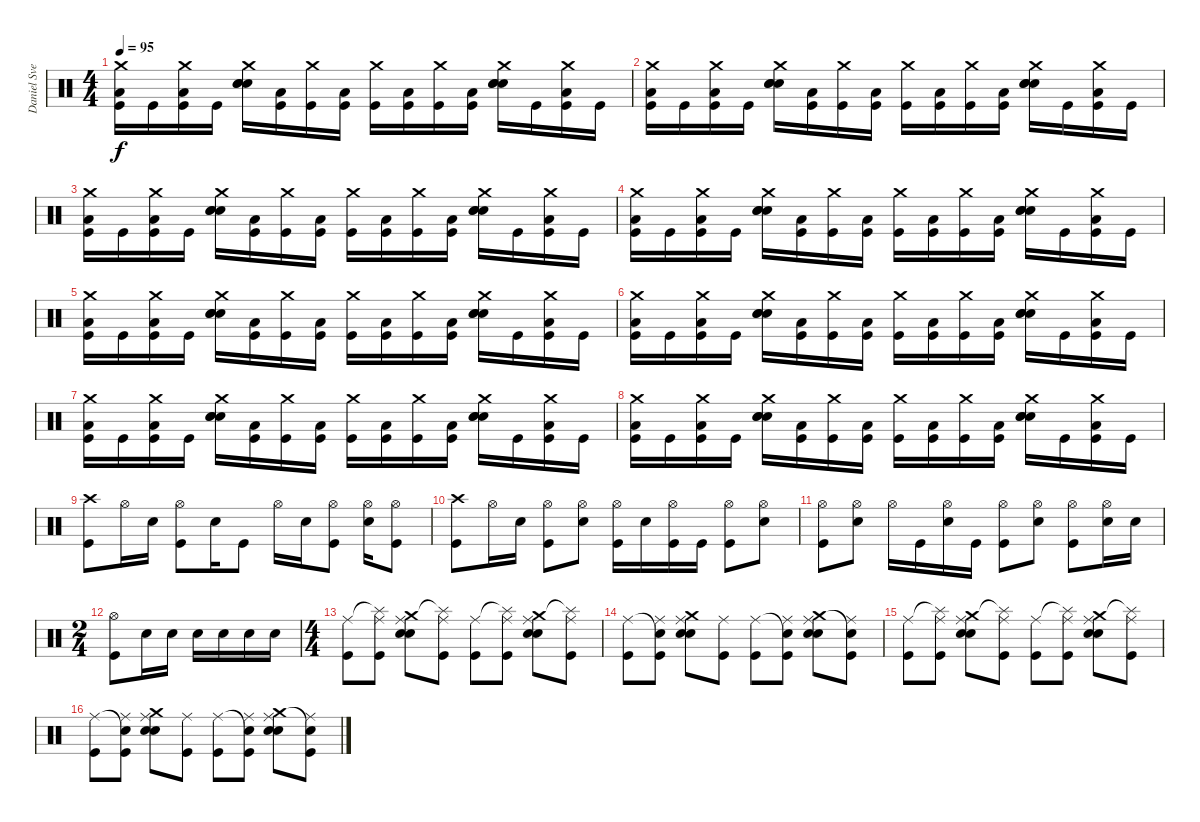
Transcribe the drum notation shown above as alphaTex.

\track ("Daniel Svensson" "Daniel Sve") {instrument percussion}
\staff {score}
\articulation defaults
\ts (4 4)
\tempo 95
\clef neutral
\ks c
("Crash medium (hit)" "Low Floor Tom (hit)" "Kick (hit)").16{dy f} "Kick (hit)".16 ("Crash medium (hit)" "Low Floor Tom (hit)" "Kick (hit)").16 "Kick (hit)".16 ("Crash medium (hit)" "Snare (hit) 2" "Snare (hit) 2" "Snare (hit) 2").16 ("Low Floor Tom (hit)" "Kick (hit)").16 ("Crash medium (hit)" "Kick (hit)").16 ("Low Floor Tom (hit)" "Kick (hit)").16 ("Crash medium (hit)" "Kick (hit)").16 ("Low Floor Tom (hit)" "Kick (hit)").16 ("Crash medium (hit)" "Kick (hit)").16 ("Low Floor Tom (hit)" "Kick (hit)").16 ("Crash medium (hit)" "Snare (hit) 2" "Snare (hit) 2" "Snare (hit) 2").16 "Kick (hit)".16 ("Crash medium (hit)" "Low Floor Tom (hit)" "Kick (hit)").16 "Kick (hit)".16 |
("Crash medium (hit)" "Low Floor Tom (hit)" "Kick (hit)").16 "Kick (hit)".16 ("Crash medium (hit)" "Low Floor Tom (hit)" "Kick (hit)").16 "Kick (hit)".16 ("Crash medium (hit)" "Snare (hit) 2" "Snare (hit) 2" "Snare (hit) 2").16 ("Low Floor Tom (hit)" "Kick (hit)").16 ("Crash medium (hit)" "Kick (hit)").16 ("Low Floor Tom (hit)" "Kick (hit)").16 ("Crash medium (hit)" "Kick (hit)").16 ("Low Floor Tom (hit)" "Kick (hit)").16 ("Crash medium (hit)" "Kick (hit)").16 ("Low Floor Tom (hit)" "Kick (hit)").16 ("Crash medium (hit)" "Snare (hit) 2" "Snare (hit) 2" "Snare (hit) 2").16 "Kick (hit)".16 ("Crash medium (hit)" "Low Floor Tom (hit)" "Kick (hit)").16 "Kick (hit)".16 |
("Crash medium (hit)" "Low Floor Tom (hit)" "Kick (hit)").16 "Kick (hit)".16 ("Crash medium (hit)" "Low Floor Tom (hit)" "Kick (hit)").16 "Kick (hit)".16 ("Crash medium (hit)" "Snare (hit) 2" "Snare (hit) 2" "Snare (hit) 2").16 ("Low Floor Tom (hit)" "Kick (hit)").16 ("Crash medium (hit)" "Kick (hit)").16 ("Low Floor Tom (hit)" "Kick (hit)").16 ("Crash medium (hit)" "Kick (hit)").16 ("Low Floor Tom (hit)" "Kick (hit)").16 ("Crash medium (hit)" "Kick (hit)").16 ("Low Floor Tom (hit)" "Kick (hit)").16 ("Crash medium (hit)" "Snare (hit) 2" "Snare (hit) 2" "Snare (hit) 2").16 "Kick (hit)".16 ("Crash medium (hit)" "Low Floor Tom (hit)" "Kick (hit)").16 "Kick (hit)".16 |
("Crash medium (hit)" "Low Floor Tom (hit)" "Kick (hit)").16 "Kick (hit)".16 ("Crash medium (hit)" "Low Floor Tom (hit)" "Kick (hit)").16 "Kick (hit)".16 ("Crash medium (hit)" "Snare (hit) 2" "Snare (hit) 2" "Snare (hit) 2").16 ("Low Floor Tom (hit)" "Kick (hit)").16 ("Crash medium (hit)" "Kick (hit)").16 ("Low Floor Tom (hit)" "Kick (hit)").16 ("Crash medium (hit)" "Kick (hit)").16 ("Low Floor Tom (hit)" "Kick (hit)").16 ("Crash medium (hit)" "Kick (hit)").16 ("Low Floor Tom (hit)" "Kick (hit)").16 ("Crash medium (hit)" "Snare (hit) 2" "Snare (hit) 2" "Snare (hit) 2").16 "Kick (hit)".16 ("Crash medium (hit)" "Low Floor Tom (hit)" "Kick (hit)").16 "Kick (hit)".16 |
("Crash medium (hit)" "Low Floor Tom (hit)" "Kick (hit)").16 "Kick (hit)".16 ("Crash medium (hit)" "Low Floor Tom (hit)" "Kick (hit)").16 "Kick (hit)".16 ("Crash medium (hit)" "Snare (hit) 2" "Snare (hit) 2" "Snare (hit) 2").16 ("Low Floor Tom (hit)" "Kick (hit)").16 ("Crash medium (hit)" "Kick (hit)").16 ("Low Floor Tom (hit)" "Kick (hit)").16 ("Crash medium (hit)" "Kick (hit)").16 ("Low Floor Tom (hit)" "Kick (hit)").16 ("Crash medium (hit)" "Kick (hit)").16 ("Low Floor Tom (hit)" "Kick (hit)").16 ("Crash medium (hit)" "Snare (hit) 2" "Snare (hit) 2" "Snare (hit) 2").16 "Kick (hit)".16 ("Crash medium (hit)" "Low Floor Tom (hit)" "Kick (hit)").16 "Kick (hit)".16 |
("Crash medium (hit)" "Low Floor Tom (hit)" "Kick (hit)").16 "Kick (hit)".16 ("Crash medium (hit)" "Low Floor Tom (hit)" "Kick (hit)").16 "Kick (hit)".16 ("Crash medium (hit)" "Snare (hit) 2" "Snare (hit) 2" "Snare (hit) 2").16 ("Low Floor Tom (hit)" "Kick (hit)").16 ("Crash medium (hit)" "Kick (hit)").16 ("Low Floor Tom (hit)" "Kick (hit)").16 ("Crash medium (hit)" "Kick (hit)").16 ("Low Floor Tom (hit)" "Kick (hit)").16 ("Crash medium (hit)" "Kick (hit)").16 ("Low Floor Tom (hit)" "Kick (hit)").16 ("Crash medium (hit)" "Snare (hit) 2" "Snare (hit) 2" "Snare (hit) 2").16 "Kick (hit)".16 ("Crash medium (hit)" "Low Floor Tom (hit)" "Kick (hit)").16 "Kick (hit)".16 |
("Crash medium (hit)" "Low Floor Tom (hit)" "Kick (hit)").16 "Kick (hit)".16 ("Crash medium (hit)" "Low Floor Tom (hit)" "Kick (hit)").16 "Kick (hit)".16 ("Crash medium (hit)" "Snare (hit) 2" "Snare (hit) 2" "Snare (hit) 2").16 ("Low Floor Tom (hit)" "Kick (hit)").16 ("Crash medium (hit)" "Kick (hit)").16 ("Low Floor Tom (hit)" "Kick (hit)").16 ("Crash medium (hit)" "Kick (hit)").16 ("Low Floor Tom (hit)" "Kick (hit)").16 ("Crash medium (hit)" "Kick (hit)").16 ("Low Floor Tom (hit)" "Kick (hit)").16 ("Crash medium (hit)" "Snare (hit) 2" "Snare (hit) 2" "Snare (hit) 2").16 "Kick (hit)".16 ("Crash medium (hit)" "Low Floor Tom (hit)" "Kick (hit)").16 "Kick (hit)".16 |
("Crash medium (hit)" "Low Floor Tom (hit)" "Kick (hit)").16 "Kick (hit)".16 ("Crash medium (hit)" "Low Floor Tom (hit)" "Kick (hit)").16 "Kick (hit)".16 ("Crash medium (hit)" "Snare (hit) 2" "Snare (hit) 2" "Snare (hit) 2").16 ("Low Floor Tom (hit)" "Kick (hit)").16 ("Crash medium (hit)" "Kick (hit)").16 ("Low Floor Tom (hit)" "Kick (hit)").16 ("Crash medium (hit)" "Kick (hit)").16 ("Low Floor Tom (hit)" "Kick (hit)").16 ("Crash medium (hit)" "Kick (hit)").16 ("Low Floor Tom (hit)" "Kick (hit)").16 ("Crash medium (hit)" "Snare (hit) 2" "Snare (hit) 2" "Snare (hit) 2").16 "Kick (hit)".16 ("Crash medium (hit)" "Low Floor Tom (hit)" "Kick (hit)").16 "Kick (hit)".16 |
("Crash high (hit)" "Kick (hit)").8 "Hi-Hat (open)".16 "Snare (hit) 2".16 ("Hi-Hat (open)" "Kick (hit)").8 "Snare (hit) 2".16 "Kick (hit)".8 "Hi-Hat (open)".16 "Snare (hit) 2".16 ("Hi-Hat (open)" "Kick (hit)").8 ("Hi-Hat (open)" "Snare (hit) 2").16 ("Hi-Hat (open)" "Kick (hit)").8 |
("Crash high (hit)" "Kick (hit)").8 "Hi-Hat (open)".16 "Electric Snare (hit)".16 ("Hi-Hat (open)" "Kick (hit)").8 ("Hi-Hat (open)" "Electric Snare (hit)").8 ("Hi-Hat (open)" "Kick (hit)").16 "Electric Snare (hit)".16 ("Hi-Hat (open)" "Kick (hit)").16 "Kick (hit)".16 ("Hi-Hat (open)" "Kick (hit)").8 ("Hi-Hat (open)" "Electric Snare (hit)").8 |
("Hi-Hat (open)" "Kick (hit)").8 ("Hi-Hat (open)" "Snare (hit) 2").8 "Hi-Hat (open)".16 "Kick (hit)".16 ("Hi-Hat (open)" "Snare (hit) 2").16 "Kick (hit)".16 ("Hi-Hat (open)" "Kick (hit)").8 ("Hi-Hat (open)" "Electric Snare (hit)").8 ("Hi-Hat (open)" "Kick (hit)").8 ("Hi-Hat (open)" "Electric Snare (hit)").16 "Electric Snare (hit)".16 |
\ts (2 4)
("Hi-Hat (open)" "Kick (hit)").8 "Electric Snare (hit)".16 "Electric Snare (hit)".16 "Electric Snare (hit)".16 "Electric Snare (hit)".16 "Electric Snare (hit)".16 "Electric Snare (hit)".16 |
\ts (4 4)
("Ride (middle)" "Kick (hit)").8 ("Splash (hit)"{t} "Ride (middle)" "Kick (hit)").8 ("Crash medium (hit)" "Snare (hit) 2" "Ride (middle)" "Snare (hit) 2").8 ("Splash (hit)"{t} "Ride (middle)" "Kick (hit)").8 ("Ride (middle)" "Kick (hit)").8 ("Splash (hit)"{t} "Ride (middle)" "Kick (hit)").8 ("Crash medium (hit)" "Snare (hit) 2" "Ride (middle)" "Snare (hit) 2").8 ("Splash (hit)"{t} "Ride (middle)" "Kick (hit)").8 |
("Ride (middle)" "Kick (hit)").8 ("Snare (hit)"{t} "Ride (middle)" "Kick (hit)").8 ("Crash medium (hit)" "Snare (hit) 2" "Ride (middle)" "Snare (hit) 2").8 ("Ride (middle)" "Kick (hit)").8 ("Ride (middle)" "Kick (hit)").8 ("Snare (hit)"{t} "Ride (middle)" "Kick (hit)").8 ("Crash medium (hit)" "Snare (hit) 2" "Ride (middle)" "Snare (hit) 2").8 ("Snare (hit)"{t} "Ride (middle)" "Kick (hit)").8 |
("Ride (middle)" "Kick (hit)").8 ("Splash (hit)"{t} "Ride (middle)" "Kick (hit)").8 ("Crash medium (hit)" "Snare (hit) 2" "Ride (middle)" "Snare (hit) 2").8 ("Splash (hit)"{t} "Ride (middle)" "Kick (hit)").8 ("Ride (middle)" "Kick (hit)").8 ("Splash (hit)"{t} "Ride (middle)" "Kick (hit)").8 ("Crash medium (hit)" "Snare (hit) 2" "Ride (middle)" "Snare (hit) 2").8 ("Splash (hit)"{t} "Ride (middle)" "Kick (hit)").8 |
("Ride (middle)" "Kick (hit)").8 ("Snare (hit)"{t} "Ride (middle)" "Kick (hit)").8 ("Crash medium (hit)" "Snare (hit) 2" "Ride (middle)" "Snare (hit) 2").8 ("Ride (middle)" "Kick (hit)").8 ("Ride (middle)" "Kick (hit)").8 ("Snare (hit)"{t} "Ride (middle)" "Kick (hit)").8 ("Crash medium (hit)" "Snare (hit) 2" "Ride (middle)" "Snare (hit) 2").8 ("Snare (hit)"{t} "Ride (middle)" "Kick (hit)").8
